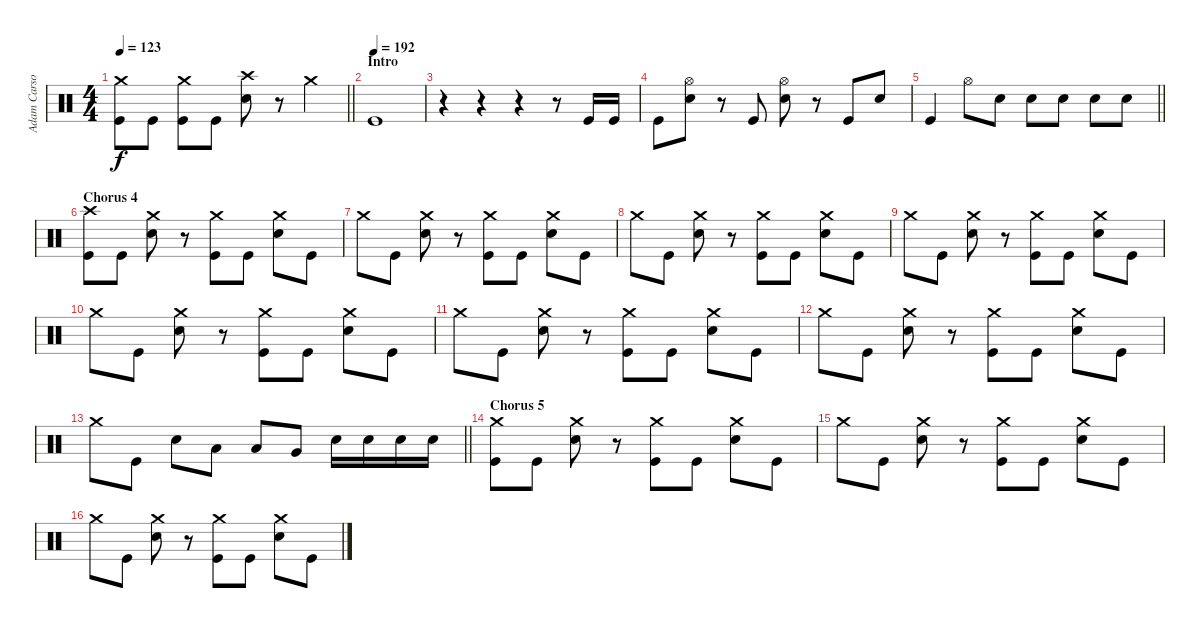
\track ("Adam Carson" "Adam Carso") {instrument percussion}
\staff {score}
\articulation defaults
\ts (4 4)
\tempo 123
\clef neutral
\barLineRight lightlight
\ks c
("Crash medium (hit)" "Kick (hit)").8{dy f} "Kick (hit)".8 ("Crash medium (hit)" "Kick (hit)").8 "Kick (hit)".8 ("Crash high (hit)" "Electric Snare (hit)").8 r.8 "Crash medium (hit)".4 |
\section ("" "Intro")
\tempo (192)
"Kick (hit)".1 |
r.4 r.4 r.4 r.8 "Kick (hit)".16 "Kick (hit)".16 |
"Kick (hit)".8 ("Hi-Hat (open)" "Electric Snare (hit)").8 r.8 "Kick (hit)".8 ("Hi-Hat (open)" "Electric Snare (hit)").8 r.8 "Kick (hit)".8 "Electric Snare (hit)".8 |
\barLineRight lightlight "Kick (hit)".4 "Hi-Hat (open)".8 "Electric Snare (hit)".8 "Electric Snare (hit)".8 "Electric Snare (hit)".8 "Electric Snare (hit)".8 "Electric Snare (hit)".8
|
\section ("" "Chorus 4")
("Crash high (hit)" "Kick (hit)").8 "Kick (hit)".8 ("Crash medium (hit)" "Electric Snare (hit)").8 r.8 ("Crash medium (hit)" "Kick (hit)").8 "Kick (hit)".8 ("Crash medium (hit)" "Electric Snare (hit)").8 "Kick (hit)".8 |
"Crash medium (hit)".8 "Kick (hit)".8 ("Crash medium (hit)" "Electric Snare (hit)").8 r.8 ("Crash medium (hit)" "Kick (hit)").8 "Kick (hit)".8 ("Crash medium (hit)" "Electric Snare (hit)").8 "Kick (hit)".8 |
"Crash medium (hit)".8 "Kick (hit)".8 ("Crash medium (hit)" "Electric Snare (hit)").8 r.8 ("Crash medium (hit)" "Kick (hit)").8 "Kick (hit)".8 ("Crash medium (hit)" "Electric Snare (hit)").8 "Kick (hit)".8 |
"Crash medium (hit)".8 "Kick (hit)".8 ("Crash medium (hit)" "Electric Snare (hit)").8 r.8 ("Crash medium (hit)" "Kick (hit)").8 "Kick (hit)".8 ("Crash medium (hit)" "Electric Snare (hit)").8 "Kick (hit)".8 |
"Crash medium (hit)".8 "Kick (hit)".8 ("Crash medium (hit)" "Electric Snare (hit)").8 r.8 ("Crash medium (hit)" "Kick (hit)").8 "Kick (hit)".8 ("Crash medium (hit)" "Electric Snare (hit)").8 "Kick (hit)".8 |
"Crash medium (hit)".8 "Kick (hit)".8 ("Crash medium (hit)" "Electric Snare (hit)").8 r.8 ("Crash medium (hit)" "Kick (hit)").8 "Kick (hit)".8 ("Crash medium (hit)" "Electric Snare (hit)").8 "Kick (hit)".8 |
"Crash medium (hit)".8 "Kick (hit)".8 ("Crash medium (hit)" "Electric Snare (hit)").8 r.8 ("Crash medium (hit)" "Kick (hit)").8 "Kick (hit)".8 ("Crash medium (hit)" "Electric Snare (hit)").8 "Kick (hit)".8 |
\barLineRight lightlight "Crash medium (hit)".8 "Kick (hit)".8 "Electric Snare (hit)".8 "Low Tom (hit)".8 "Low Tom (hit)".8 "Very Low Tom (hit)".8 "Electric Snare (hit)".16 "Electric Snare (hit)".16 "Electric Snare (hit)".16 "Electric Snare (hit)".16
|
\section ("" "Chorus 5")
("Crash medium (hit)" "Kick (hit)").8 "Kick (hit)".8 ("Crash medium (hit)" "Electric Snare (hit)").8 r.8 ("Crash medium (hit)" "Kick (hit)").8 "Kick (hit)".8 ("Crash medium (hit)" "Electric Snare (hit)").8 "Kick (hit)".8 |
"Crash medium (hit)".8 "Kick (hit)".8 ("Crash medium (hit)" "Electric Snare (hit)").8 r.8 ("Crash medium (hit)" "Kick (hit)").8 "Kick (hit)".8 ("Crash medium (hit)" "Electric Snare (hit)").8 "Kick (hit)".8 |
"Crash medium (hit)".8 "Kick (hit)".8 ("Crash medium (hit)" "Electric Snare (hit)").8 r.8 ("Crash medium (hit)" "Kick (hit)").8 "Kick (hit)".8 ("Crash medium (hit)" "Electric Snare (hit)").8 "Kick (hit)".8
